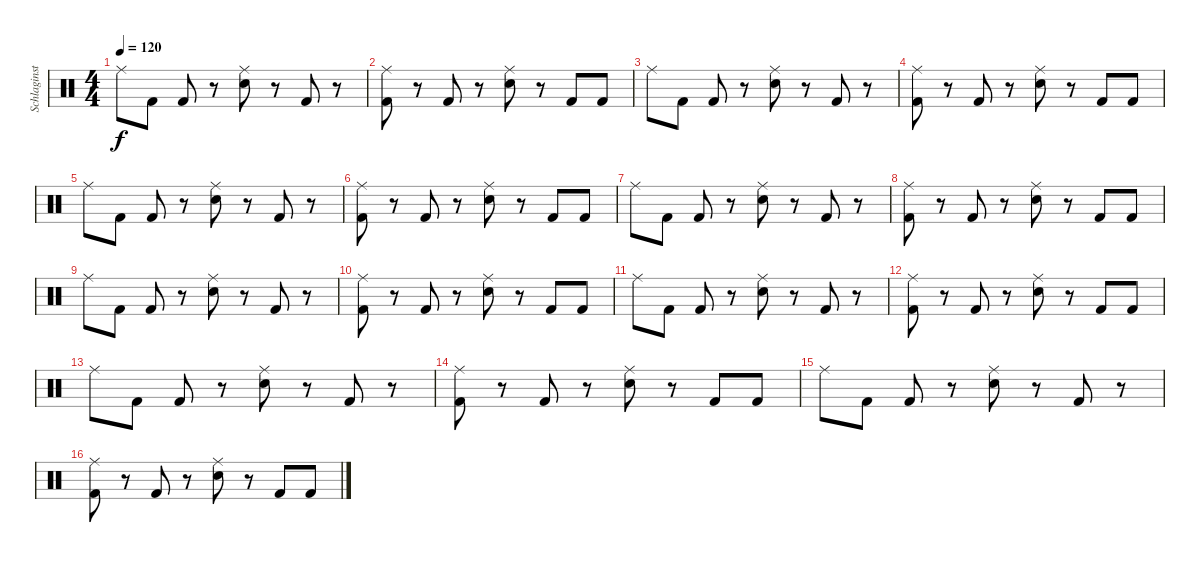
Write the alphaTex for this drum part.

\track ("Schlaginstrumente - Auswahl" "Schlaginst") {instrument percussion}
\staff {score}
\articulation defaults
\ts (4 4)
\tempo 120
\clef neutral
\ks c "Ride (middle)".8{dy f} "Kick (hit) 2".8 "Kick (hit) 2".8
r.8 ("Ride (middle)" "Snare (hit) 2").8 r.8 "Kick (hit) 2".8 r.8 |
("Ride (middle)" "Kick (hit) 2").8 r.8 "Kick (hit) 2".8 r.8 ("Ride (middle)" "Snare (hit) 2").8 r.8 "Kick (hit) 2".8 "Kick (hit) 2".8 |
"Ride (middle)".8 "Kick (hit) 2".8 "Kick (hit) 2".8 r.8 ("Ride (middle)" "Snare (hit) 2").8 r.8 "Kick (hit) 2".8 r.8 |
("Ride (middle)" "Kick (hit) 2").8 r.8 "Kick (hit) 2".8 r.8 ("Ride (middle)" "Snare (hit) 2").8 r.8 "Kick (hit) 2".8 "Kick (hit) 2".8 |
"Ride (middle)".8 "Kick (hit) 2".8 "Kick (hit) 2".8 r.8 ("Ride (middle)" "Snare (hit) 2").8 r.8 "Kick (hit) 2".8 r.8 |
("Ride (middle)" "Kick (hit) 2").8 r.8 "Kick (hit) 2".8 r.8 ("Ride (middle)" "Snare (hit) 2").8 r.8 "Kick (hit) 2".8 "Kick (hit) 2".8 |
"Ride (middle)".8 "Kick (hit) 2".8 "Kick (hit) 2".8 r.8 ("Ride (middle)" "Snare (hit) 2").8 r.8 "Kick (hit) 2".8 r.8 |
("Ride (middle)" "Kick (hit) 2").8 r.8 "Kick (hit) 2".8 r.8 ("Ride (middle)" "Snare (hit) 2").8 r.8 "Kick (hit) 2".8 "Kick (hit) 2".8 |
"Ride (middle)".8 "Kick (hit) 2".8 "Kick (hit) 2".8 r.8 ("Ride (middle)" "Snare (hit) 2").8 r.8 "Kick (hit) 2".8 r.8 |
("Ride (middle)" "Kick (hit) 2").8 r.8 "Kick (hit) 2".8 r.8 ("Ride (middle)" "Snare (hit) 2").8 r.8 "Kick (hit) 2".8 "Kick (hit) 2".8 |
"Ride (middle)".8 "Kick (hit) 2".8 "Kick (hit) 2".8 r.8 ("Ride (middle)" "Snare (hit) 2").8 r.8 "Kick (hit) 2".8 r.8 |
("Ride (middle)" "Kick (hit) 2").8 r.8 "Kick (hit) 2".8 r.8 ("Ride (middle)" "Snare (hit) 2").8 r.8 "Kick (hit) 2".8 "Kick (hit) 2".8 |
"Ride (middle)".8 "Kick (hit) 2".8 "Kick (hit) 2".8 r.8 ("Ride (middle)" "Snare (hit) 2").8 r.8 "Kick (hit) 2".8 r.8 |
("Ride (middle)" "Kick (hit) 2").8 r.8 "Kick (hit) 2".8 r.8 ("Ride (middle)" "Snare (hit) 2").8 r.8 "Kick (hit) 2".8 "Kick (hit) 2".8 |
"Ride (middle)".8 "Kick (hit) 2".8 "Kick (hit) 2".8 r.8 ("Ride (middle)" "Snare (hit) 2").8 r.8 "Kick (hit) 2".8 r.8 |
("Ride (middle)" "Kick (hit) 2").8 r.8 "Kick (hit) 2".8 r.8 ("Ride (middle)" "Snare (hit) 2").8 r.8 "Kick (hit) 2".8 "Kick (hit) 2".8
